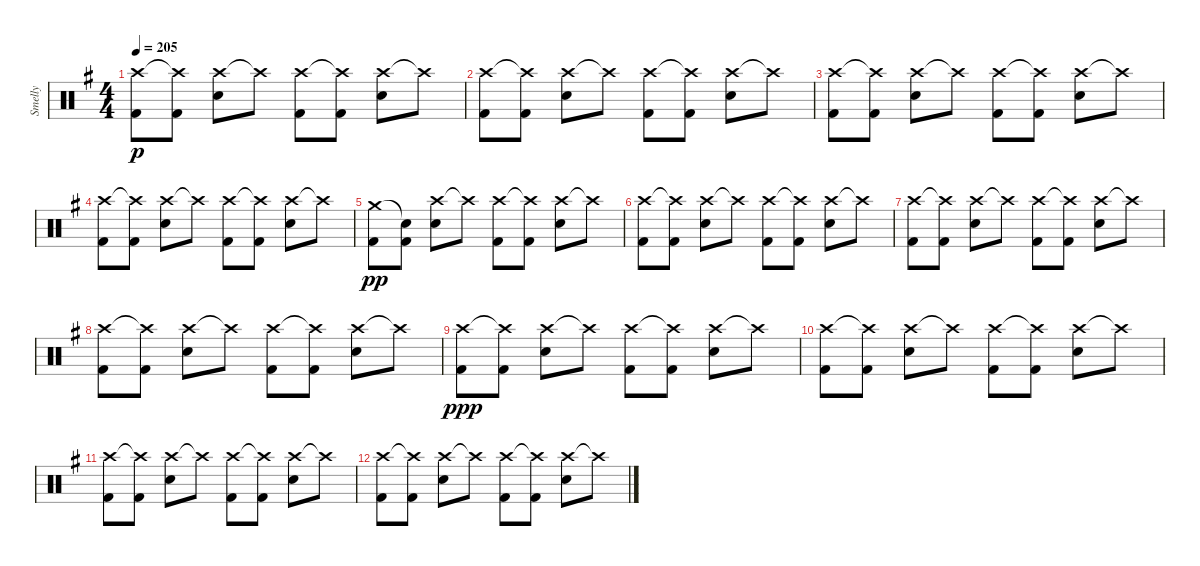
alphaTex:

\track ("Smelly" "Smelly") {instrument percussion}
\staff {score}
\articulation defaults
\ts (4 4)
\tempo 205
\clef neutral
\ks eminor
("Crash high (hit)" "Kick (hit) 2").8{dy p} ("Crash high (hit)"{t} "Kick (hit) 2").8 ("Crash high (hit)" "Electric Snare (hit)").8 "Crash high (hit)"{t}.8 ("Crash high (hit)" "Kick (hit) 2").8 ("Crash high (hit)"{t} "Kick (hit) 2").8 ("Crash high (hit)" "Electric Snare (hit)").8 "Crash high (hit)"{t}.8 |
("Crash high (hit)" "Kick (hit) 2").8 ("Crash high (hit)"{t} "Kick (hit) 2").8 ("Crash high (hit)" "Electric Snare (hit)").8 "Crash high (hit)"{t}.8 ("Crash high (hit)" "Kick (hit) 2").8 ("Crash high (hit)"{t} "Kick (hit) 2").8 ("Crash high (hit)" "Electric Snare (hit)").8 "Crash high (hit)"{t}.8 |
("Crash high (hit)" "Kick (hit) 2").8 ("Crash high (hit)"{t} "Kick (hit) 2").8 ("Crash high (hit)" "Electric Snare (hit)").8 "Crash high (hit)"{t}.8 ("Crash high (hit)" "Kick (hit) 2").8 ("Crash high (hit)"{t} "Kick (hit) 2").8 ("Crash high (hit)" "Electric Snare (hit)").8 "Crash high (hit)"{t}.8 |
("Crash high (hit)" "Kick (hit) 2").8 ("Crash high (hit)"{t} "Kick (hit) 2").8 ("Crash high (hit)" "Electric Snare (hit)").8 "Crash high (hit)"{t}.8 ("Crash high (hit)" "Kick (hit) 2").8 ("Crash high (hit)"{t} "Kick (hit) 2").8 ("Crash high (hit)" "Electric Snare (hit)").8 "Crash high (hit)"{t}.8 |
("Crash medium (hit)" "Kick (hit) 2").8{dy pp} ("Snare (hit)"{t} "Kick (hit) 2").8 ("Crash high (hit)" "Electric Snare (hit)").8 "Crash high (hit)"{t}.8 ("Crash high (hit)" "Kick (hit) 2").8 ("Crash high (hit)"{t} "Kick (hit) 2").8 ("Crash high (hit)" "Electric Snare (hit)").8 "Crash high (hit)"{t}.8 |
("Crash high (hit)" "Kick (hit) 2").8 ("Crash high (hit)"{t} "Kick (hit) 2").8 ("Crash high (hit)" "Electric Snare (hit)").8 "Crash high (hit)"{t}.8 ("Crash high (hit)" "Kick (hit) 2").8 ("Crash high (hit)"{t} "Kick (hit) 2").8 ("Crash high (hit)" "Electric Snare (hit)").8 "Crash high (hit)"{t}.8 |
("Crash high (hit)" "Kick (hit) 2").8 ("Crash high (hit)"{t} "Kick (hit) 2").8 ("Crash high (hit)" "Electric Snare (hit)").8 "Crash high (hit)"{t}.8 ("Crash high (hit)" "Kick (hit) 2").8 ("Crash high (hit)"{t} "Kick (hit) 2").8 ("Crash high (hit)" "Electric Snare (hit)").8 "Crash high (hit)"{t}.8 |
("Crash high (hit)" "Kick (hit) 2").8 ("Crash high (hit)"{t} "Kick (hit) 2").8 ("Crash high (hit)" "Electric Snare (hit)").8 "Crash high (hit)"{t}.8 ("Crash high (hit)" "Kick (hit) 2").8 ("Crash high (hit)"{t} "Kick (hit) 2").8 ("Crash high (hit)" "Electric Snare (hit)").8 "Crash high (hit)"{t}.8 |
("Crash high (hit)" "Kick (hit) 2").8{dy ppp} ("Crash high (hit)"{t} "Kick (hit) 2").8 ("Crash high (hit)" "Electric Snare (hit)").8 "Crash high (hit)"{t}.8 ("Crash high (hit)" "Kick (hit) 2").8 ("Crash high (hit)"{t} "Kick (hit) 2").8 ("Crash high (hit)" "Electric Snare (hit)").8 "Crash high (hit)"{t}.8 |
("Crash high (hit)" "Kick (hit) 2").8 ("Crash high (hit)"{t} "Kick (hit) 2").8 ("Crash high (hit)" "Electric Snare (hit)").8 "Crash high (hit)"{t}.8 ("Crash high (hit)" "Kick (hit) 2").8 ("Crash high (hit)"{t} "Kick (hit) 2").8 ("Crash high (hit)" "Electric Snare (hit)").8 "Crash high (hit)"{t}.8 |
("Crash high (hit)" "Kick (hit) 2").8 ("Crash high (hit)"{t} "Kick (hit) 2").8 ("Crash high (hit)" "Electric Snare (hit)").8 "Crash high (hit)"{t}.8 ("Crash high (hit)" "Kick (hit) 2").8 ("Crash high (hit)"{t} "Kick (hit) 2").8 ("Crash high (hit)" "Electric Snare (hit)").8 "Crash high (hit)"{t}.8 |
("Crash high (hit)" "Kick (hit) 2").8 ("Crash high (hit)"{t} "Kick (hit) 2").8 ("Crash high (hit)" "Electric Snare (hit)").8 "Crash high (hit)"{t}.8 ("Crash high (hit)" "Kick (hit) 2").8 ("Crash high (hit)"{t} "Kick (hit) 2").8 ("Crash high (hit)" "Electric Snare (hit)").8 "Crash high (hit)"{t}.8
